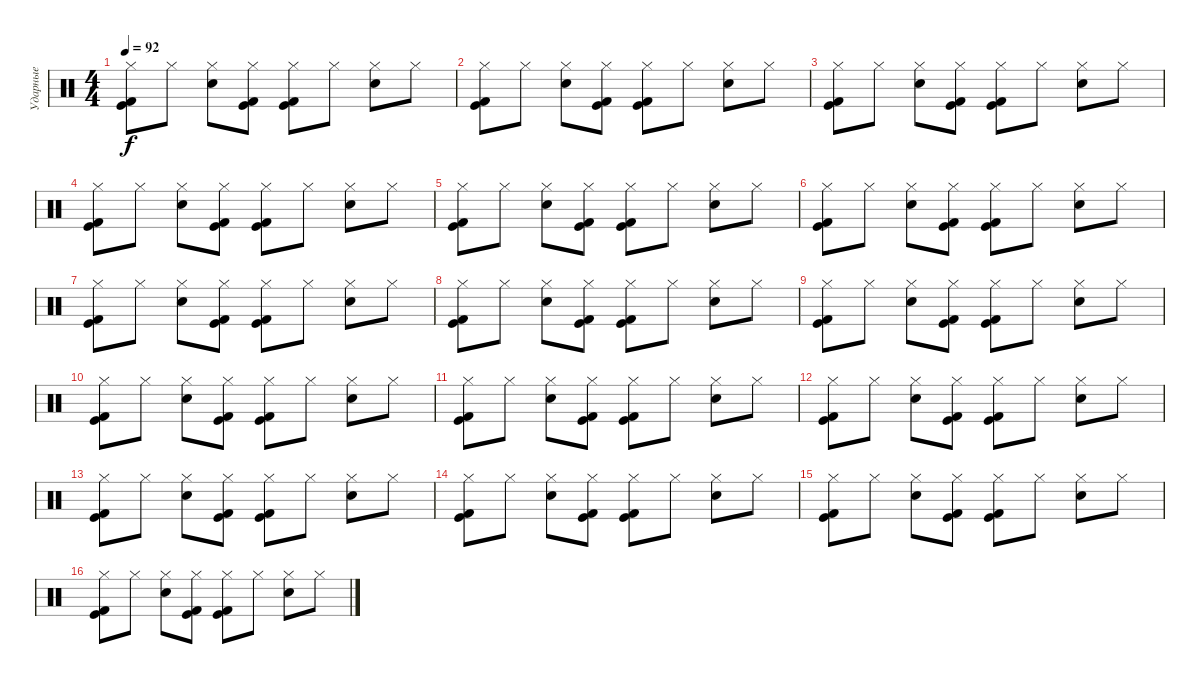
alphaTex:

\track ("Ударные" "Ударные") {instrument percussion}
\staff {score}
\articulation defaults
\ts (4 4)
\tempo 92
\clef neutral
\ks c
("Hi-Hat (closed)" "Kick (hit)" "Kick (hit) 2").8{dy f} "Hi-Hat (closed)".8 ("Hi-Hat (closed)" "Electric Snare (hit)").8 ("Hi-Hat (closed)" "Kick (hit)" "Kick (hit) 2").8 ("Hi-Hat (closed)" "Kick (hit)" "Kick (hit) 2").8 "Hi-Hat (closed)".8 ("Hi-Hat (closed)" "Electric Snare (hit)").8 "Hi-Hat (closed)".8 |
("Hi-Hat (closed)" "Kick (hit)" "Kick (hit) 2").8 "Hi-Hat (closed)".8 ("Hi-Hat (closed)" "Electric Snare (hit)").8 ("Hi-Hat (closed)" "Kick (hit)" "Kick (hit) 2").8 ("Hi-Hat (closed)" "Kick (hit)" "Kick (hit) 2").8 "Hi-Hat (closed)".8 ("Hi-Hat (closed)" "Electric Snare (hit)").8 "Hi-Hat (closed)".8 |
("Hi-Hat (closed)" "Kick (hit)" "Kick (hit) 2").8 "Hi-Hat (closed)".8 ("Hi-Hat (closed)" "Electric Snare (hit)").8 ("Hi-Hat (closed)" "Kick (hit)" "Kick (hit) 2").8 ("Hi-Hat (closed)" "Kick (hit)" "Kick (hit) 2").8 "Hi-Hat (closed)".8 ("Hi-Hat (closed)" "Electric Snare (hit)").8 "Hi-Hat (closed)".8 |
("Hi-Hat (closed)" "Kick (hit)" "Kick (hit) 2").8 "Hi-Hat (closed)".8 ("Hi-Hat (closed)" "Electric Snare (hit)").8 ("Hi-Hat (closed)" "Kick (hit)" "Kick (hit) 2").8 ("Hi-Hat (closed)" "Kick (hit)" "Kick (hit) 2").8 "Hi-Hat (closed)".8 ("Hi-Hat (closed)" "Electric Snare (hit)").8 "Hi-Hat (closed)".8 |
("Hi-Hat (closed)" "Kick (hit)" "Kick (hit) 2").8 "Hi-Hat (closed)".8 ("Hi-Hat (closed)" "Electric Snare (hit)").8 ("Hi-Hat (closed)" "Kick (hit)" "Kick (hit) 2").8 ("Hi-Hat (closed)" "Kick (hit)" "Kick (hit) 2").8 "Hi-Hat (closed)".8 ("Hi-Hat (closed)" "Electric Snare (hit)").8 "Hi-Hat (closed)".8 |
("Hi-Hat (closed)" "Kick (hit)" "Kick (hit) 2").8 "Hi-Hat (closed)".8 ("Hi-Hat (closed)" "Electric Snare (hit)").8 ("Hi-Hat (closed)" "Kick (hit)" "Kick (hit) 2").8 ("Hi-Hat (closed)" "Kick (hit)" "Kick (hit) 2").8 "Hi-Hat (closed)".8 ("Hi-Hat (closed)" "Electric Snare (hit)").8 "Hi-Hat (closed)".8 |
("Hi-Hat (closed)" "Kick (hit)" "Kick (hit) 2").8 "Hi-Hat (closed)".8 ("Hi-Hat (closed)" "Electric Snare (hit)").8 ("Hi-Hat (closed)" "Kick (hit)" "Kick (hit) 2").8 ("Hi-Hat (closed)" "Kick (hit)" "Kick (hit) 2").8 "Hi-Hat (closed)".8 ("Hi-Hat (closed)" "Electric Snare (hit)").8 "Hi-Hat (closed)".8 |
("Hi-Hat (closed)" "Kick (hit)" "Kick (hit) 2").8 "Hi-Hat (closed)".8 ("Hi-Hat (closed)" "Electric Snare (hit)").8 ("Hi-Hat (closed)" "Kick (hit)" "Kick (hit) 2").8 ("Hi-Hat (closed)" "Kick (hit)" "Kick (hit) 2").8 "Hi-Hat (closed)".8 ("Hi-Hat (closed)" "Electric Snare (hit)").8 "Hi-Hat (closed)".8 |
("Hi-Hat (closed)" "Kick (hit)" "Kick (hit) 2").8 "Hi-Hat (closed)".8 ("Hi-Hat (closed)" "Electric Snare (hit)").8 ("Hi-Hat (closed)" "Kick (hit)" "Kick (hit) 2").8 ("Hi-Hat (closed)" "Kick (hit)" "Kick (hit) 2").8 "Hi-Hat (closed)".8 ("Hi-Hat (closed)" "Electric Snare (hit)").8 "Hi-Hat (closed)".8 |
("Hi-Hat (closed)" "Kick (hit)" "Kick (hit) 2").8 "Hi-Hat (closed)".8 ("Hi-Hat (closed)" "Electric Snare (hit)").8 ("Hi-Hat (closed)" "Kick (hit)" "Kick (hit) 2").8 ("Hi-Hat (closed)" "Kick (hit)" "Kick (hit) 2").8 "Hi-Hat (closed)".8 ("Hi-Hat (closed)" "Electric Snare (hit)").8 "Hi-Hat (closed)".8 |
("Hi-Hat (closed)" "Kick (hit)" "Kick (hit) 2").8 "Hi-Hat (closed)".8 ("Hi-Hat (closed)" "Electric Snare (hit)").8 ("Hi-Hat (closed)" "Kick (hit)" "Kick (hit) 2").8 ("Hi-Hat (closed)" "Kick (hit)" "Kick (hit) 2").8 "Hi-Hat (closed)".8 ("Hi-Hat (closed)" "Electric Snare (hit)").8 "Hi-Hat (closed)".8 |
("Hi-Hat (closed)" "Kick (hit)" "Kick (hit) 2").8 "Hi-Hat (closed)".8 ("Hi-Hat (closed)" "Electric Snare (hit)").8 ("Hi-Hat (closed)" "Kick (hit)" "Kick (hit) 2").8 ("Hi-Hat (closed)" "Kick (hit)" "Kick (hit) 2").8 "Hi-Hat (closed)".8 ("Hi-Hat (closed)" "Electric Snare (hit)").8 "Hi-Hat (closed)".8 |
("Hi-Hat (closed)" "Kick (hit)" "Kick (hit) 2").8 "Hi-Hat (closed)".8 ("Hi-Hat (closed)" "Electric Snare (hit)").8 ("Hi-Hat (closed)" "Kick (hit)" "Kick (hit) 2").8 ("Hi-Hat (closed)" "Kick (hit)" "Kick (hit) 2").8 "Hi-Hat (closed)".8 ("Hi-Hat (closed)" "Electric Snare (hit)").8 "Hi-Hat (closed)".8 |
("Hi-Hat (closed)" "Kick (hit)" "Kick (hit) 2").8 "Hi-Hat (closed)".8 ("Hi-Hat (closed)" "Electric Snare (hit)").8 ("Hi-Hat (closed)" "Kick (hit)" "Kick (hit) 2").8 ("Hi-Hat (closed)" "Kick (hit)" "Kick (hit) 2").8 "Hi-Hat (closed)".8 ("Hi-Hat (closed)" "Electric Snare (hit)").8 "Hi-Hat (closed)".8 |
("Hi-Hat (closed)" "Kick (hit)" "Kick (hit) 2").8 "Hi-Hat (closed)".8 ("Hi-Hat (closed)" "Electric Snare (hit)").8 ("Hi-Hat (closed)" "Kick (hit)" "Kick (hit) 2").8 ("Hi-Hat (closed)" "Kick (hit)" "Kick (hit) 2").8 "Hi-Hat (closed)".8 ("Hi-Hat (closed)" "Electric Snare (hit)").8 "Hi-Hat (closed)".8 |
("Hi-Hat (closed)" "Kick (hit)" "Kick (hit) 2").8 "Hi-Hat (closed)".8 ("Hi-Hat (closed)" "Electric Snare (hit)").8 ("Hi-Hat (closed)" "Kick (hit)" "Kick (hit) 2").8 ("Hi-Hat (closed)" "Kick (hit)" "Kick (hit) 2").8 "Hi-Hat (closed)".8 ("Hi-Hat (closed)" "Electric Snare (hit)").8 "Hi-Hat (closed)".8
